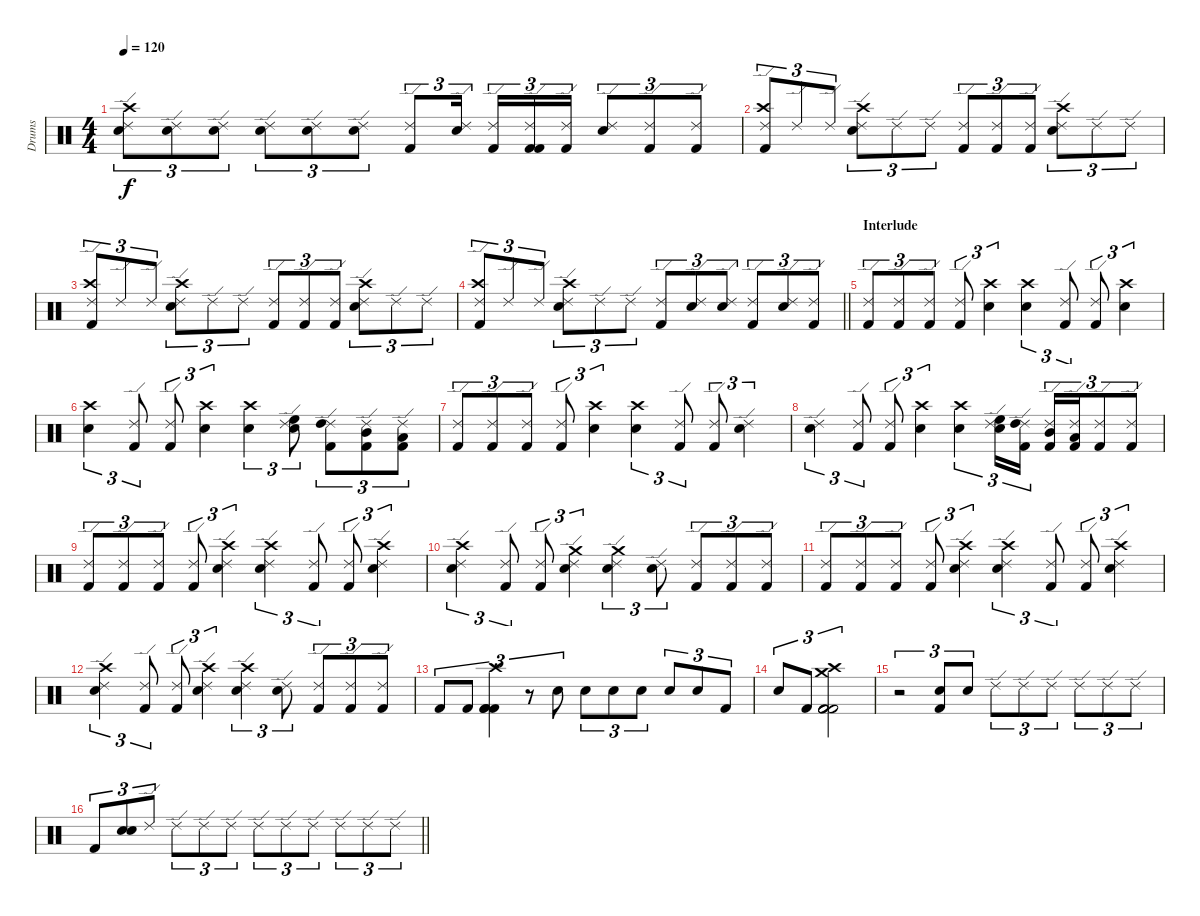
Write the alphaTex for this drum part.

\track ("Drums" "Drums") {instrument percussion}
\staff {score}
\articulation defaults
\ts (4 4)
\tempo 120
\clef neutral
\ks c
("Ride (edge) 2" "Crash high (hit)" "Electric Snare (hit)").8{tu (3 2) dy f} ("Ride (edge) 2" "Electric Snare (hit)").8{tu (3 2)} ("Ride (edge) 2" "Electric Snare (hit)").8{tu (3 2)} ("Ride (edge) 2" "Electric Snare (hit)").8{tu (3 2)} ("Ride (edge) 2" "Electric Snare (hit)").8{tu (3 2)} ("Ride (edge) 2" "Electric Snare (hit)").8{tu (3 2)} ("Ride (edge) 2" "Kick (hit) 2").8{tu (3 2)} ("Ride (edge) 2" "Electric Snare (hit)").16{tu (3 2) beam splitsecondary} ("Ride (edge) 2" "Kick (hit) 2").16{tu (3 2)} ("Ride (edge) 2" "Kick (hit) 2" "Kick (hit) 2").16{tu (3 2)} ("Ride (edge) 2" "Kick (hit) 2").16{tu (3 2)} ("Ride (edge) 2" "Electric Snare (hit)").8{tu (3 2)} ("Ride (edge) 2" "Kick (hit) 2").8{tu (3 2)} ("Ride (edge) 2" "Kick (hit) 2").8{tu (3 2)} |
("Ride (edge) 2" "Crash high (hit)" "Kick (hit) 2").8{tu (3 2)} "Ride (edge) 2".8{tu (3 2)} "Ride (edge) 2".8{tu (3 2)} ("Ride (edge) 2" "Crash high (hit)" "Electric Snare (hit)").8{tu (3 2)} "Ride (edge) 2".8{tu (3 2)} "Ride (edge) 2".8{tu (3 2)} ("Ride (edge) 2" "Kick (hit) 2").8{tu (3 2)} ("Ride (edge) 2" "Kick (hit) 2").8{tu (3 2)} ("Ride (edge) 2" "Kick (hit) 2").8{tu (3 2)} ("Ride (edge) 2" "Crash high (hit)" "Electric Snare (hit)").8{tu (3 2)} "Ride (edge) 2".8{tu (3 2)} "Ride (edge) 2".8{tu (3 2)} |
("Ride (edge) 2" "Crash high (hit)" "Kick (hit) 2").8{tu (3 2)} "Ride (edge) 2".8{tu (3 2)} "Ride (edge) 2".8{tu (3 2)} ("Ride (edge) 2" "Crash high (hit)" "Electric Snare (hit)").8{tu (3 2)} "Ride (edge) 2".8{tu (3 2)} "Ride (edge) 2".8{tu (3 2)} ("Ride (edge) 2" "Kick (hit) 2").8{tu (3 2)} ("Ride (edge) 2" "Kick (hit) 2").8{tu (3 2)} ("Ride (edge) 2" "Kick (hit) 2").8{tu (3 2)} ("Ride (edge) 2" "Crash high (hit)" "Electric Snare (hit)").8{tu (3 2)} "Ride (edge) 2".8{tu (3 2)} "Ride (edge) 2".8{tu (3 2)} |
\barLineRight lightlight
("Ride (edge) 2" "Crash high (hit)" "Kick (hit) 2").8{tu (3 2)} "Ride (edge) 2".8{tu (3 2)} "Ride (edge) 2".8{tu (3 2)} ("Ride (edge) 2" "Crash high (hit)" "Electric Snare (hit)").8{tu (3 2)} "Ride (edge) 2".8{tu (3 2)} "Ride (edge) 2".8{tu (3 2)} ("Ride (edge) 2" "Kick (hit) 2").8{tu (3 2)} ("Ride (edge) 2" "Electric Snare (hit)").8{tu (3 2)} ("Ride (edge) 2" "Electric Snare (hit)").8{tu (3 2)} ("Ride (edge) 2" "Kick (hit) 2").8{tu (3 2)} ("Ride (edge) 2" "Electric Snare (hit)").8{tu (3 2)} ("Ride (edge) 2" "Kick (hit) 2").8{tu (3 2)} |
\section ("" "Interlude")
("Ride (edge) 2" "Kick (hit) 2").8{tu (3 2)} ("Ride (edge) 2" "Kick (hit) 2").8{tu (3 2)} ("Ride (edge) 2" "Kick (hit) 2").8{tu (3 2)} ("Ride (edge) 2" "Kick (hit) 2").8{tu (3 2)} ("Crash high (hit)" "Electric Snare (hit)").4{tu (3 2)} ("Crash high (hit)" "Electric Snare (hit)").4{tu (3 2)} ("Ride (edge) 2" "Kick (hit) 2").8{tu (3 2)} ("Ride (edge) 2" "Kick (hit) 2").8{tu (3 2)} ("Crash high (hit)" "Electric Snare (hit)").4{tu (3 2)} |
("Crash high (hit)" "Electric Snare (hit)").4{tu (3 2)} ("Ride (edge) 2" "Kick (hit) 2").8{tu (3 2)} ("Ride (edge) 2" "Kick (hit) 2").8{tu (3 2)} ("Crash high (hit)" "Electric Snare (hit)").4{tu (3 2)} ("Crash high (hit)" "Electric Snare (hit)").4{tu (3 2)} ("Ride (edge) 2" "High Floor Tom (hit)" "Electric Snare (hit)").8{tu (3 2)} ("Ride (edge) 2" "High Tom (hit)" "Kick (hit) 2").8{tu (3 2)} ("Ride (edge) 2" "Mid Tom (hit)" "Kick (hit) 2").8{tu (3 2)} ("Ride (edge) 2" "Low Tom (hit)" "Kick (hit) 2").8{tu (3 2)} |
("Ride (edge) 2" "Kick (hit) 2").8{tu (3 2)} ("Ride (edge) 2" "Kick (hit) 2").8{tu (3 2)} ("Ride (edge) 2" "Kick (hit) 2").8{tu (3 2)} ("Ride (edge) 2" "Kick (hit) 2").8{tu (3 2)} ("Crash high (hit)" "Electric Snare (hit)").4{tu (3 2)} ("Crash high (hit)" "Electric Snare (hit)").4{tu (3 2)} ("Ride (edge) 2" "Kick (hit) 2").8{tu (3 2)} ("Ride (edge) 2" "Kick (hit) 2").8{tu (3 2)} ("Ride (edge) 2" "Electric Snare (hit)").4{tu (3 2)} |
("Ride (edge) 2" "Electric Snare (hit)").4{tu (3 2)} ("Ride (edge) 2" "Kick (hit) 2").8{tu (3 2)} ("Ride (edge) 2" "Kick (hit) 2").8{tu (3 2)} ("Crash high (hit)" "Electric Snare (hit)").4{tu (3 2)} ("Crash high (hit)" "Electric Snare (hit)").4{tu (3 2)} ("Ride (edge) 2" "High Floor Tom (hit)" "Electric Snare (hit)").16{tu (3 2)} ("Ride (edge) 2" "High Tom (hit)" "Kick (hit) 2").16{tu (3 2)} ("Ride (edge) 2" "Mid Tom (hit)" "Kick (hit) 2").16{tu (3 2)} ("Ride (edge) 2" "Low Tom (hit)" "Kick (hit) 2").16{tu (3 2)} ("Ride (edge) 2" "Kick (hit) 2").8{tu (3 2)} ("Ride (edge) 2" "Kick (hit) 2").8{tu (3 2)} |
("Ride (edge) 2" "Kick (hit) 2").8{tu (3 2)} ("Ride (edge) 2" "Kick (hit) 2").8{tu (3 2)} ("Ride (edge) 2" "Kick (hit) 2").8{tu (3 2)} ("Ride (edge) 2" "Kick (hit) 2").8{tu (3 2)} ("Ride (edge) 2" "Crash high (hit)" "Electric Snare (hit)").4{tu (3 2)} ("Ride (edge) 2" "Crash high (hit)" "Electric Snare (hit)").4{tu (3 2)} ("Ride (edge) 2" "Kick (hit) 2").8{tu (3 2)} ("Ride (edge) 2" "Kick (hit) 2").8{tu (3 2)} ("Ride (edge) 2" "Crash high (hit)" "Electric Snare (hit)").4{tu (3 2)} |
("Ride (edge) 2" "Crash high (hit)" "Electric Snare (hit)").4{tu (3 2)} ("Ride (edge) 2" "Kick (hit) 2").8{tu (3 2)} ("Ride (edge) 2" "Kick (hit) 2").8{tu (3 2)} ("Ride (edge) 2" "Crash medium (hit)" "Electric Snare (hit)").4{tu (3 2)} ("Ride (edge) 2" "Crash medium (hit)" "Electric Snare (hit)").4{tu (3 2)} ("Ride (edge) 2" "Electric Snare (hit)").8{tu (3 2)} ("Ride (edge) 2" "Kick (hit) 2").8{tu (3 2)} ("Ride (edge) 2" "Kick (hit) 2").8{tu (3 2)} ("Ride (edge) 2" "Kick (hit) 2").8{tu (3 2)} |
("Ride (edge) 2" "Kick (hit) 2").8{tu (3 2)} ("Ride (edge) 2" "Kick (hit) 2").8{tu (3 2)} ("Ride (edge) 2" "Kick (hit) 2").8{tu (3 2)} ("Ride (edge) 2" "Kick (hit) 2").8{tu (3 2)} ("Ride (edge) 2" "Crash high (hit)" "Electric Snare (hit)").4{tu (3 2)} ("Ride (edge) 2" "Crash high (hit)" "Electric Snare (hit)").4{tu (3 2)} ("Ride (edge) 2" "Kick (hit) 2").8{tu (3 2)} ("Ride (edge) 2" "Kick (hit) 2").8{tu (3 2)} ("Ride (edge) 2" "Crash high (hit)" "Electric Snare (hit)").4{tu (3 2)} |
("Ride (edge) 2" "Crash high (hit)" "Electric Snare (hit)").4{tu (3 2)} ("Ride (edge) 2" "Kick (hit) 2").8{tu (3 2)} ("Ride (edge) 2" "Kick (hit) 2").8{tu (3 2)} ("Ride (edge) 2" "Crash high (hit)" "Electric Snare (hit)").4{tu (3 2)} ("Ride (edge) 2" "Crash high (hit)" "Electric Snare (hit)").4{tu (3 2)} ("Ride (edge) 2" "Electric Snare (hit)").8{tu (3 2)} ("Ride (edge) 2" "Kick (hit) 2").8{tu (3 2)} ("Ride (edge) 2" "Kick (hit) 2").8{tu (3 2)} ("Ride (edge) 2" "Kick (hit) 2").8{tu (3 2)} |
"Kick (hit) 2".8{tu (3 2)} "Kick (hit) 2".8{tu (3 2)} ("Kick (hit) 2" "Kick (hit) 2" "Crash high (hit)" "Kick (hit) 2").4{tu (3 2) volume 16} r.8{tu (3 2)} "Electric Snare (hit)".8{tu (3 2)} "Electric Snare (hit)".8{tu (3 2)} "Electric Snare (hit)".8{tu (3 2)} "Electric Snare (hit)".8{tu (3 2)} "Electric Snare (hit)".8{tu (3 2)} "Electric Snare (hit)".8{tu (3 2)} "Kick (hit) 2".8{tu (3 2)} |
"Electric Snare (hit)".8{tu (3 2)} "Kick (hit) 2".8{tu (3 2)} ("Kick (hit) 2" "Kick (hit) 2" "Crash medium (hit)" "Kick (hit) 2" "Kick (hit) 2" "Crash high (hit)").2{tu (3 2)} |
r.2{tu (3 2)} ("Electric Snare (hit)" "Kick (hit) 2").8{tu (3 2)} "Electric Snare (hit)".8{tu (3 2)} "Ride (edge) 2".8{tu (3 2)} "Ride (edge) 2".8{tu (3 2)} "Ride (edge) 2".8{tu (3 2)} "Ride (edge) 2".8{tu (3 2)} "Ride (edge) 2".8{tu (3 2)} "Ride (edge) 2".8{tu (3 2)} |
\barLineRight lightlight "Kick (hit) 2".8{tu (3 2)}
("Electric Snare (hit)" "Electric Snare (hit)").8{tu (3 2)} "Ride (edge) 2".8{tu (3 2)} "Ride (edge) 2".8{tu (3 2)} "Ride (edge) 2".8{tu (3 2)} "Ride (edge) 2".8{tu (3 2)} "Ride (edge) 2".8{tu (3 2)} "Ride (edge) 2".8{tu (3 2)} "Ride (edge) 2".8{tu (3 2)} "Ride (edge) 2".8{tu (3 2)} "Ride (edge) 2".8{tu (3 2)} "Ride (edge) 2".8{tu (3 2)}
